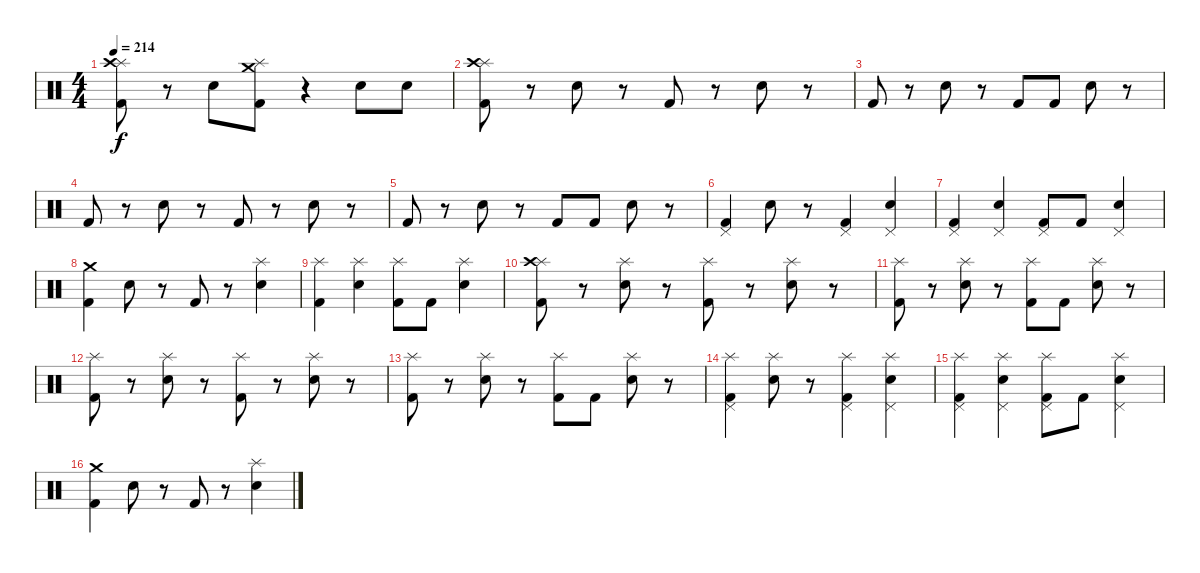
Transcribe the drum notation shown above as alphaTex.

\track "" {instrument percussion}
\staff {score}
\articulation defaults
\ts (4 4)
\tempo 214
\clef neutral
\ks c
("Splash (hit)" "Crash high (hit)" "Kick (hit) 2").8{dy f} r.8 "Electric Snare (hit)".8 ("Splash (hit)" "Crash medium (hit)" "Kick (hit) 2").8 r.4 "Electric Snare (hit)".8 "Electric Snare (hit)".8 |
("Splash (hit)" "Crash high (hit)" "Kick (hit) 2").8 r.8 "Electric Snare (hit)".8 r.8 "Kick (hit) 2".8 r.8 "Electric Snare (hit)".8 r.8 |
"Kick (hit) 2".8 r.8 "Electric Snare (hit)".8 r.8 "Kick (hit) 2".8 "Kick (hit) 2".8 "Electric Snare (hit)".8 r.8 |
"Kick (hit) 2".8 r.8 "Electric Snare (hit)".8 r.8 "Kick (hit) 2".8 r.8 "Electric Snare (hit)".8 r.8 |
"Kick (hit) 2".8 r.8 "Electric Snare (hit)".8 r.8 "Kick (hit) 2".8 "Kick (hit) 2".8 "Electric Snare (hit)".8 r.8 |
("Pedal Hi-Hat (hit)" "Kick (hit) 2").4 "Electric Snare (hit)".8 r.8 ("Pedal Hi-Hat (hit)" "Kick (hit) 2").4 ("Pedal Hi-Hat (hit)" "Electric Snare (hit)").4 |
("Pedal Hi-Hat (hit)" "Kick (hit) 2").4 ("Pedal Hi-Hat (hit)" "Electric Snare (hit)").4 ("Pedal Hi-Hat (hit)" "Kick (hit) 2").8 "Kick (hit) 2".8 ("Pedal Hi-Hat (hit)" "Electric Snare (hit)").4 |
("Crash medium (hit)" "Kick (hit) 2").4 "Electric Snare (hit)".8 r.8 "Kick (hit) 2".8 r.8 ("Splash (hit)" "Electric Snare (hit)").4 |
("Splash (hit)" "Kick (hit) 2").4 ("Splash (hit)" "Electric Snare (hit)").4 ("Splash (hit)" "Kick (hit) 2").8 "Kick (hit) 2".8 ("Splash (hit)" "Electric Snare (hit)").4 |
("Splash (hit)" "Crash high (hit)" "Kick (hit) 2").8 r.8 ("Splash (hit)" "Electric Snare (hit)").8 r.8 ("Splash (hit)" "Kick (hit) 2").8 r.8 ("Splash (hit)" "Electric Snare (hit)").8 r.8 |
("Splash (hit)" "Kick (hit) 2").8 r.8 ("Splash (hit)" "Electric Snare (hit)").8 r.8 ("Splash (hit)" "Kick (hit) 2").8 "Kick (hit) 2".8 ("Splash (hit)" "Electric Snare (hit)").8 r.8 |
("Splash (hit)" "Kick (hit) 2").8 r.8 ("Splash (hit)" "Electric Snare (hit)").8 r.8 ("Splash (hit)" "Kick (hit) 2").8 r.8 ("Splash (hit)" "Electric Snare (hit)").8 r.8 |
("Splash (hit)" "Kick (hit) 2").8 r.8 ("Splash (hit)" "Electric Snare (hit)").8 r.8 ("Splash (hit)" "Kick (hit) 2").8 "Kick (hit) 2".8 ("Splash (hit)" "Electric Snare (hit)").8 r.8 |
("Splash (hit)" "Pedal Hi-Hat (hit)" "Kick (hit) 2").4 ("Splash (hit)" "Electric Snare (hit)").8 r.8 ("Splash (hit)" "Pedal Hi-Hat (hit)" "Kick (hit) 2").4 ("Splash (hit)" "Pedal Hi-Hat (hit)" "Electric Snare (hit)").4 |
("Splash (hit)" "Pedal Hi-Hat (hit)" "Kick (hit) 2").4 ("Splash (hit)" "Pedal Hi-Hat (hit)" "Electric Snare (hit)").4 ("Splash (hit)" "Pedal Hi-Hat (hit)" "Kick (hit) 2").8 "Kick (hit) 2".8 ("Splash (hit)" "Pedal Hi-Hat (hit)" "Electric Snare (hit)").4 |
("Crash medium (hit)" "Kick (hit) 2").4 "Electric Snare (hit)".8 r.8 "Kick (hit) 2".8 r.8 ("Splash (hit)" "Electric Snare (hit)").4
